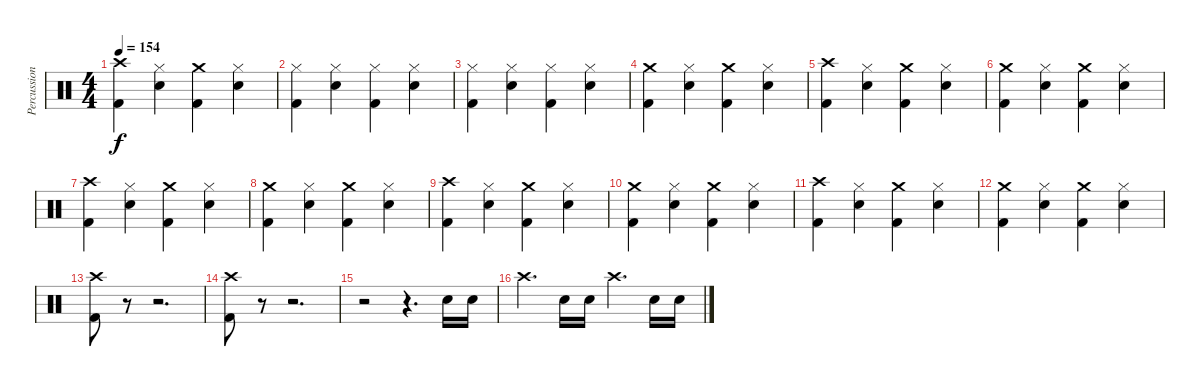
\track ("Percussion" "Percussion") {instrument percussion}
\staff {score}
\articulation defaults
\ts (4 4)
\tempo 154
\clef neutral
\ks c
("Crash high (hit)" "Kick (hit) 2").4{dy f} ("Hi-Hat (closed)" "Snare (hit) 2").4 ("Crash medium (hit)" "Kick (hit) 2").4 ("Hi-Hat (closed)" "Snare (hit) 2").4 |
("Hi-Hat (closed)" "Kick (hit) 2").4 ("Hi-Hat (closed)" "Snare (hit) 2").4 ("Hi-Hat (closed)" "Kick (hit) 2").4 ("Hi-Hat (closed)" "Snare (hit) 2").4 |
("Hi-Hat (closed)" "Kick (hit) 2").4 ("Hi-Hat (closed)" "Snare (hit) 2").4 ("Hi-Hat (closed)" "Kick (hit) 2").4 ("Hi-Hat (closed)" "Snare (hit) 2").4 |
("Crash medium (hit)" "Kick (hit) 2").4 ("Hi-Hat (closed)" "Snare (hit) 2").4 ("Crash medium (hit)" "Kick (hit) 2").4 ("Hi-Hat (closed)" "Snare (hit) 2").4 |
("Crash high (hit)" "Kick (hit) 2").4 ("Hi-Hat (closed)" "Snare (hit) 2").4 ("Crash medium (hit)" "Kick (hit) 2").4 ("Hi-Hat (closed)" "Snare (hit) 2").4 |
("Crash medium (hit)" "Kick (hit) 2").4 ("Hi-Hat (closed)" "Snare (hit) 2").4 ("Crash medium (hit)" "Kick (hit) 2").4 ("Hi-Hat (closed)" "Snare (hit) 2").4 |
("Crash high (hit)" "Kick (hit) 2").4 ("Hi-Hat (closed)" "Snare (hit) 2").4 ("Crash medium (hit)" "Kick (hit) 2").4 ("Hi-Hat (closed)" "Snare (hit) 2").4 |
("Crash medium (hit)" "Kick (hit) 2").4 ("Hi-Hat (closed)" "Snare (hit) 2").4 ("Crash medium (hit)" "Kick (hit) 2").4 ("Hi-Hat (closed)" "Snare (hit) 2").4 |
("Crash high (hit)" "Kick (hit) 2").4 ("Hi-Hat (closed)" "Snare (hit) 2").4 ("Crash medium (hit)" "Kick (hit) 2").4 ("Hi-Hat (closed)" "Snare (hit) 2").4 |
("Crash medium (hit)" "Kick (hit) 2").4 ("Hi-Hat (closed)" "Snare (hit) 2").4 ("Crash medium (hit)" "Kick (hit) 2").4 ("Hi-Hat (closed)" "Snare (hit) 2").4 |
("Crash high (hit)" "Kick (hit) 2").4 ("Hi-Hat (closed)" "Snare (hit) 2").4 ("Crash medium (hit)" "Kick (hit) 2").4 ("Hi-Hat (closed)" "Snare (hit) 2").4 |
("Crash medium (hit)" "Kick (hit) 2").4 ("Hi-Hat (closed)" "Snare (hit) 2").4 ("Crash medium (hit)" "Kick (hit) 2").4 ("Hi-Hat (closed)" "Snare (hit) 2").4 |
("Crash high (hit)" "Kick (hit) 2").8 r.8 r.2{d} |
("Crash high (hit)" "Kick (hit) 2").8 r.8 r.2{d} |
r.2 r.4{d} "Snare (hit) 2".16 "Snare (hit) 2".16 |
"Crash high (hit)".4{d} "Snare (hit) 2".16 "Snare (hit) 2".16 "Crash high (hit)".4{d} "Snare (hit) 2".16 "Snare (hit) 2".16
